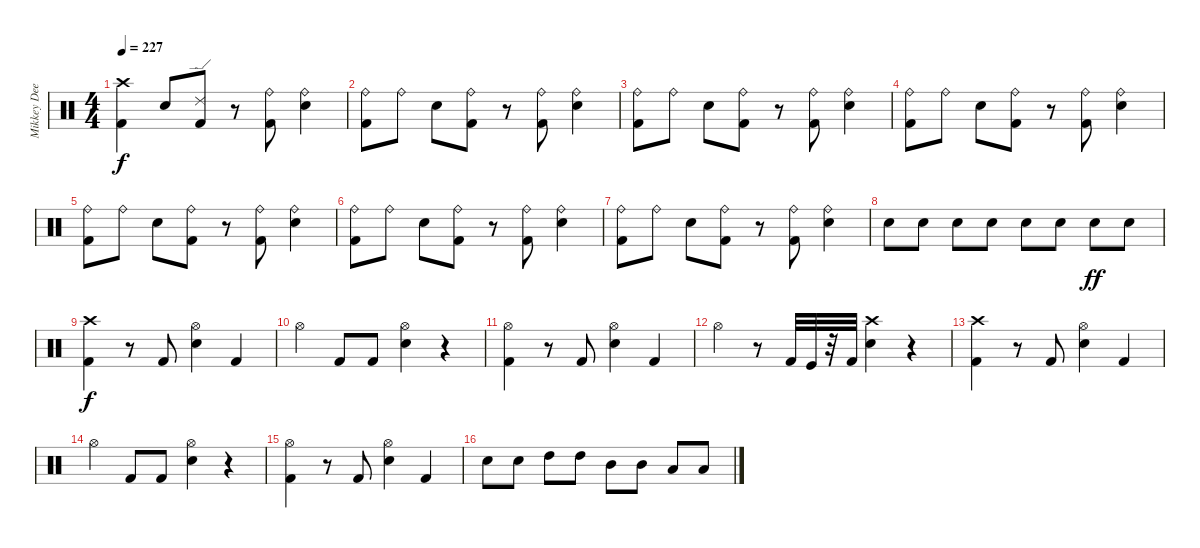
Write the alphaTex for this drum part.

\track ("Mikkey Dee" "Mikkey Dee") {instrument percussion}
\staff {score}
\articulation defaults
\ts (4 4)
\tempo 227
\clef neutral
\ks c
("Kick (hit) 2" "Crash high (hit)").4{dy f} "Electric Snare (hit)".8 ("Ride (edge) 2" "Kick (hit) 2").8 r.8 ("Ride (bell)" "Kick (hit) 2").8 ("Electric Snare (hit)" "Ride (bell)").4 |
("Kick (hit) 2" "Ride (bell)").8 "Ride (bell)".8 "Electric Snare (hit)".8 ("Ride (bell)" "Kick (hit) 2").8 r.8 ("Ride (bell)" "Kick (hit) 2").8 ("Ride (bell)" "Electric Snare (hit)").4 |
("Kick (hit) 2" "Ride (bell)").8 "Ride (bell)".8 "Electric Snare (hit)".8 ("Ride (bell)" "Kick (hit) 2").8 r.8 ("Kick (hit) 2" "Ride (bell)").8 ("Ride (bell)" "Electric Snare (hit)").4 |
("Kick (hit) 2" "Ride (bell)").8 "Ride (bell)".8 "Electric Snare (hit)".8 ("Kick (hit) 2" "Ride (bell)").8 r.8 ("Ride (bell)" "Kick (hit) 2").8 ("Ride (bell)" "Electric Snare (hit)").4 |
("Ride (bell)" "Kick (hit) 2").8 "Ride (bell)".8 "Electric Snare (hit)".8 ("Ride (bell)" "Kick (hit) 2").8 r.8 ("Kick (hit) 2" "Ride (bell)").8 ("Ride (bell)" "Electric Snare (hit)").4 |
("Kick (hit) 2" "Ride (bell)").8 "Ride (bell)".8 "Electric Snare (hit)".8 ("Kick (hit) 2" "Ride (bell)").8 r.8 ("Kick (hit) 2" "Ride (bell)").8 ("Electric Snare (hit)" "Ride (bell)").4 |
("Kick (hit) 2" "Ride (bell)").8 "Ride (bell)".8 "Electric Snare (hit)".8 ("Kick (hit) 2" "Ride (bell)").8 r.8 ("Kick (hit) 2" "Ride (bell)").8 ("Electric Snare (hit)" "Ride (bell)").4 |
"Electric Snare (hit)".8 "Electric Snare (hit)".8 "Electric Snare (hit)".8 "Electric Snare (hit)".8 "Electric Snare (hit)".8 "Electric Snare (hit)".8 "Electric Snare (hit)".8{dy ff} "Electric Snare (hit)".8 |
("Kick (hit) 2" "Crash high (hit)").4{dy f} r.8 "Kick (hit) 2".8 ("Electric Snare (hit)" "Hi-Hat (open)").4 "Kick (hit) 2".4 |
"Hi-Hat (open)".4 "Kick (hit) 2".8 "Kick (hit) 2".8 ("Electric Snare (hit)" "Hi-Hat (open)").4 r.4 |
("Hi-Hat (open)" "Kick (hit) 2").4 r.8 "Kick (hit) 2".8 ("Electric Snare (hit)" "Hi-Hat (open)").4 "Kick (hit) 2".4 |
"Hi-Hat (open)".4 r.8 "Kick (hit) 2".32 "Kick (hit)".32 r.32 "Kick (hit) 2".32 ("Crash high (hit)" "Electric Snare (hit)").4 r.4 |
("Crash high (hit)" "Kick (hit) 2").4 r.8 "Kick (hit) 2".8 ("Electric Snare (hit)" "Hi-Hat (open)").4 "Kick (hit) 2".4 |
"Hi-Hat (open)".4 "Kick (hit) 2".8 "Kick (hit) 2".8 ("Hi-Hat (open)" "Electric Snare (hit)").4 r.4 |
("Kick (hit) 2" "Hi-Hat (open)").4 r.8 "Kick (hit) 2".8 ("Electric Snare (hit)" "Hi-Hat (open)").4 "Kick (hit) 2".4 |
"Electric Snare (hit)".8 "Electric Snare (hit)".8 "High Tom (hit)".8 "High Tom (hit)".8 "Mid Tom (hit)".8 "Mid Tom (hit)".8 "Low Tom (hit)".8 "Low Tom (hit)".8
